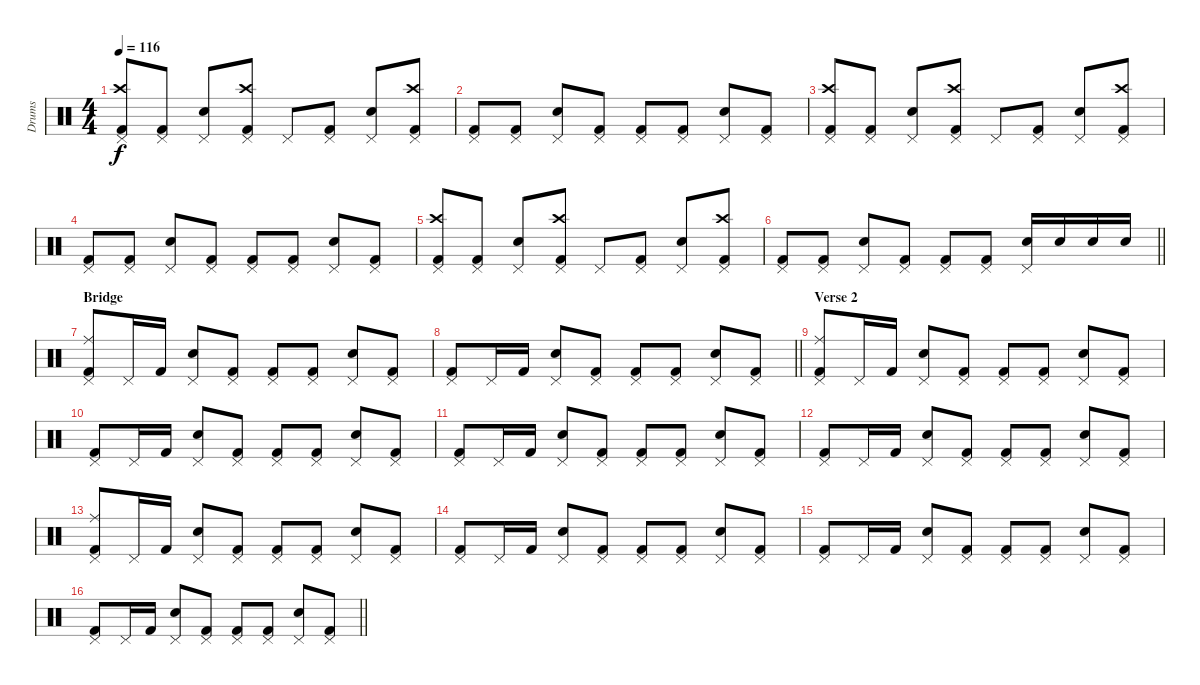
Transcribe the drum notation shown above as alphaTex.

\track ("Drums" "Drums") {instrument percussion}
\staff {score}
\articulation defaults
\ts (4 4)
\tempo 116
\clef neutral
\ks c
("Pedal Hi-Hat (hit)" "Crash high (hit)" "Kick (hit) 2").8{dy f} ("Pedal Hi-Hat (hit)" "Kick (hit) 2").8 ("Pedal Hi-Hat (hit)" "Electric Snare (hit)").8 ("Pedal Hi-Hat (hit)" "Crash high (hit)" "Kick (hit) 2").8 "Pedal Hi-Hat (hit)".8 ("Pedal Hi-Hat (hit)" "Kick (hit) 2").8 ("Pedal Hi-Hat (hit)" "Electric Snare (hit)").8 ("Pedal Hi-Hat (hit)" "Crash high (hit)" "Kick (hit) 2").8 |
("Pedal Hi-Hat (hit)" "Kick (hit) 2").8 ("Pedal Hi-Hat (hit)" "Kick (hit) 2").8 ("Pedal Hi-Hat (hit)" "Electric Snare (hit)").8 ("Pedal Hi-Hat (hit)" "Kick (hit) 2").8 ("Pedal Hi-Hat (hit)" "Kick (hit) 2").8 ("Pedal Hi-Hat (hit)" "Kick (hit) 2").8 ("Pedal Hi-Hat (hit)" "Electric Snare (hit)").8 ("Pedal Hi-Hat (hit)" "Kick (hit) 2").8 |
("Pedal Hi-Hat (hit)" "Crash high (hit)" "Kick (hit) 2").8 ("Pedal Hi-Hat (hit)" "Kick (hit) 2").8 ("Pedal Hi-Hat (hit)" "Electric Snare (hit)").8 ("Pedal Hi-Hat (hit)" "Crash high (hit)" "Kick (hit) 2").8 "Pedal Hi-Hat (hit)".8 ("Pedal Hi-Hat (hit)" "Kick (hit) 2").8 ("Pedal Hi-Hat (hit)" "Electric Snare (hit)").8 ("Pedal Hi-Hat (hit)" "Crash high (hit)" "Kick (hit) 2").8 |
("Pedal Hi-Hat (hit)" "Kick (hit) 2").8 ("Pedal Hi-Hat (hit)" "Kick (hit) 2").8 ("Pedal Hi-Hat (hit)" "Electric Snare (hit)").8 ("Pedal Hi-Hat (hit)" "Kick (hit) 2").8 ("Pedal Hi-Hat (hit)" "Kick (hit) 2").8 ("Pedal Hi-Hat (hit)" "Kick (hit) 2").8 ("Pedal Hi-Hat (hit)" "Electric Snare (hit)").8 ("Pedal Hi-Hat (hit)" "Kick (hit) 2").8 |
("Pedal Hi-Hat (hit)" "Crash high (hit)" "Kick (hit) 2").8 ("Pedal Hi-Hat (hit)" "Kick (hit) 2").8 ("Pedal Hi-Hat (hit)" "Electric Snare (hit)").8 ("Pedal Hi-Hat (hit)" "Crash high (hit)" "Kick (hit) 2").8 "Pedal Hi-Hat (hit)".8 ("Pedal Hi-Hat (hit)" "Kick (hit) 2").8 ("Pedal Hi-Hat (hit)" "Electric Snare (hit)").8 ("Pedal Hi-Hat (hit)" "Crash high (hit)" "Kick (hit) 2").8 |
\barLineRight lightlight
("Pedal Hi-Hat (hit)" "Kick (hit) 2").8 ("Pedal Hi-Hat (hit)" "Kick (hit) 2").8 ("Pedal Hi-Hat (hit)" "Electric Snare (hit)").8 ("Pedal Hi-Hat (hit)" "Kick (hit) 2").8 ("Pedal Hi-Hat (hit)" "Kick (hit) 2").8 ("Pedal Hi-Hat (hit)" "Kick (hit) 2").8 ("Pedal Hi-Hat (hit)" "Electric Snare (hit)").16 "Electric Snare (hit)".16 "Electric Snare (hit)".16 "Electric Snare (hit)".16 |
\section ("" "Bridge")
("Pedal Hi-Hat (hit)" "Ride (middle)" "Kick (hit) 2").8 "Pedal Hi-Hat (hit)".16 "Kick (hit) 2".16 ("Pedal Hi-Hat (hit)" "Electric Snare (hit)").8 ("Pedal Hi-Hat (hit)" "Kick (hit) 2").8 ("Pedal Hi-Hat (hit)" "Kick (hit) 2").8 ("Pedal Hi-Hat (hit)" "Kick (hit) 2").8 ("Pedal Hi-Hat (hit)" "Electric Snare (hit)").8 ("Pedal Hi-Hat (hit)" "Kick (hit) 2").8 |
\barLineRight lightlight
("Pedal Hi-Hat (hit)" "Kick (hit) 2").8 "Pedal Hi-Hat (hit)".16 "Kick (hit) 2".16 ("Pedal Hi-Hat (hit)" "Electric Snare (hit)").8 ("Pedal Hi-Hat (hit)" "Kick (hit) 2").8 ("Pedal Hi-Hat (hit)" "Kick (hit) 2").8 ("Pedal Hi-Hat (hit)" "Kick (hit) 2").8 ("Pedal Hi-Hat (hit)" "Electric Snare (hit)").8 ("Pedal Hi-Hat (hit)" "Kick (hit) 2").8 |
\section ("" "Verse 2")
("Pedal Hi-Hat (hit)" "Ride (middle)" "Kick (hit) 2").8 "Pedal Hi-Hat (hit)".16 "Kick (hit) 2".16 ("Pedal Hi-Hat (hit)" "Electric Snare (hit)").8 ("Pedal Hi-Hat (hit)" "Kick (hit) 2").8 ("Pedal Hi-Hat (hit)" "Kick (hit) 2").8 ("Pedal Hi-Hat (hit)" "Kick (hit) 2").8 ("Pedal Hi-Hat (hit)" "Electric Snare (hit)").8 ("Pedal Hi-Hat (hit)" "Kick (hit) 2").8 |
("Pedal Hi-Hat (hit)" "Kick (hit) 2").8 "Pedal Hi-Hat (hit)".16 "Kick (hit) 2".16 ("Pedal Hi-Hat (hit)" "Electric Snare (hit)").8 ("Pedal Hi-Hat (hit)" "Kick (hit) 2").8 ("Pedal Hi-Hat (hit)" "Kick (hit) 2").8 ("Pedal Hi-Hat (hit)" "Kick (hit) 2").8 ("Pedal Hi-Hat (hit)" "Electric Snare (hit)").8 ("Pedal Hi-Hat (hit)" "Kick (hit) 2").8 |
("Pedal Hi-Hat (hit)" "Kick (hit) 2").8 "Pedal Hi-Hat (hit)".16 "Kick (hit) 2".16 ("Pedal Hi-Hat (hit)" "Electric Snare (hit)").8 ("Pedal Hi-Hat (hit)" "Kick (hit) 2").8 ("Pedal Hi-Hat (hit)" "Kick (hit) 2").8 ("Pedal Hi-Hat (hit)" "Kick (hit) 2").8 ("Pedal Hi-Hat (hit)" "Electric Snare (hit)").8 ("Pedal Hi-Hat (hit)" "Kick (hit) 2").8 |
("Pedal Hi-Hat (hit)" "Kick (hit) 2").8 "Pedal Hi-Hat (hit)".16 "Kick (hit) 2".16 ("Pedal Hi-Hat (hit)" "Electric Snare (hit)").8 ("Pedal Hi-Hat (hit)" "Kick (hit) 2").8 ("Pedal Hi-Hat (hit)" "Kick (hit) 2").8 ("Pedal Hi-Hat (hit)" "Kick (hit) 2").8 ("Pedal Hi-Hat (hit)" "Electric Snare (hit)").8 ("Pedal Hi-Hat (hit)" "Kick (hit) 2").8 |
("Pedal Hi-Hat (hit)" "Ride (middle)" "Kick (hit) 2").8 "Pedal Hi-Hat (hit)".16 "Kick (hit) 2".16 ("Pedal Hi-Hat (hit)" "Electric Snare (hit)").8 ("Pedal Hi-Hat (hit)" "Kick (hit) 2").8 ("Pedal Hi-Hat (hit)" "Kick (hit) 2").8 ("Pedal Hi-Hat (hit)" "Kick (hit) 2").8 ("Pedal Hi-Hat (hit)" "Electric Snare (hit)").8 ("Pedal Hi-Hat (hit)" "Kick (hit) 2").8 |
("Pedal Hi-Hat (hit)" "Kick (hit) 2").8 "Pedal Hi-Hat (hit)".16 "Kick (hit) 2".16 ("Pedal Hi-Hat (hit)" "Electric Snare (hit)").8 ("Pedal Hi-Hat (hit)" "Kick (hit) 2").8 ("Pedal Hi-Hat (hit)" "Kick (hit) 2").8 ("Pedal Hi-Hat (hit)" "Kick (hit) 2").8 ("Pedal Hi-Hat (hit)" "Electric Snare (hit)").8 ("Pedal Hi-Hat (hit)" "Kick (hit) 2").8 |
("Pedal Hi-Hat (hit)" "Kick (hit) 2").8 "Pedal Hi-Hat (hit)".16 "Kick (hit) 2".16 ("Pedal Hi-Hat (hit)" "Electric Snare (hit)").8 ("Pedal Hi-Hat (hit)" "Kick (hit) 2").8 ("Pedal Hi-Hat (hit)" "Kick (hit) 2").8 ("Pedal Hi-Hat (hit)" "Kick (hit) 2").8 ("Pedal Hi-Hat (hit)" "Electric Snare (hit)").8 ("Pedal Hi-Hat (hit)" "Kick (hit) 2").8 |
\barLineRight lightlight
("Pedal Hi-Hat (hit)" "Kick (hit) 2").8 "Pedal Hi-Hat (hit)".16 "Kick (hit) 2".16 ("Pedal Hi-Hat (hit)" "Electric Snare (hit)").8 ("Pedal Hi-Hat (hit)" "Kick (hit) 2").8 ("Pedal Hi-Hat (hit)" "Kick (hit) 2").8 ("Pedal Hi-Hat (hit)" "Kick (hit) 2").8 ("Pedal Hi-Hat (hit)" "Electric Snare (hit)").8 ("Pedal Hi-Hat (hit)" "Kick (hit) 2").8
